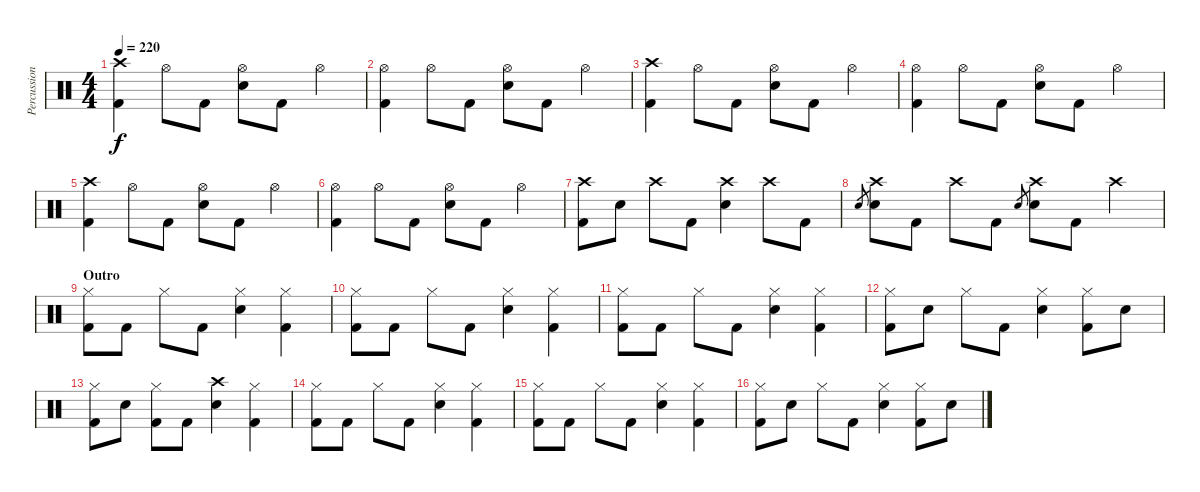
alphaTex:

\track ("Percussion" "Percussion") {instrument percussion}
\staff {score}
\articulation defaults
\ts (4 4)
\tempo 220
\clef neutral
\ks c
("Crash high (hit)" "Kick (hit) 2").4{dy f} "Hi-Hat (open)".8 "Kick (hit) 2".8 ("Hi-Hat (open)" "Snare (hit) 2").8 "Kick (hit) 2".8 "Hi-Hat (open)".4 |
("Hi-Hat (open)" "Kick (hit) 2").4 "Hi-Hat (open)".8 "Kick (hit) 2".8 ("Hi-Hat (open)" "Snare (hit) 2").8 "Kick (hit) 2".8 "Hi-Hat (open)".4 |
("Crash high (hit)" "Kick (hit) 2").4 "Hi-Hat (open)".8 "Kick (hit) 2".8 ("Hi-Hat (open)" "Snare (hit) 2").8 "Kick (hit) 2".8 "Hi-Hat (open)".4 |
("Hi-Hat (open)" "Kick (hit) 2").4 "Hi-Hat (open)".8 "Kick (hit) 2".8 ("Hi-Hat (open)" "Snare (hit) 2").8 "Kick (hit) 2".8 "Hi-Hat (open)".4 |
("Crash high (hit)" "Kick (hit) 2").4 "Hi-Hat (open)".8 "Kick (hit) 2".8 ("Hi-Hat (open)" "Snare (hit) 2").8 "Kick (hit) 2".8 "Hi-Hat (open)".4 |
("Hi-Hat (open)" "Kick (hit) 2").4 "Hi-Hat (open)".8 "Kick (hit) 2".8 ("Hi-Hat (open)" "Snare (hit) 2").8 "Kick (hit) 2".8 "Hi-Hat (open)".4 |
("Crash high (hit)" "Kick (hit) 2").8 "Snare (hit) 2".8 "Crash high (hit)".8 "Kick (hit) 2".8 ("Crash high (hit)" "Snare (hit) 2").4 "Crash high (hit)".8 "Kick (hit) 2".8 |
"Snare (hit) 2".8{gr} ("Crash high (hit)" "Snare (hit) 2").8 "Kick (hit) 2".8 "Crash high (hit)".8 "Kick (hit) 2".8 "Snare (hit) 2".8{gr} ("Crash high (hit)" "Snare (hit) 2").8 "Kick (hit) 2".8 "Crash high (hit)".4 |
\section ("" "Outro")
("Hi-Hat (closed)" "Kick (hit) 2").8 "Kick (hit) 2".8 "Hi-Hat (closed)".8 "Kick (hit) 2".8 ("Hi-Hat (closed)" "Snare (hit) 2").4 ("Hi-Hat (closed)" "Kick (hit) 2").4 |
("Hi-Hat (closed)" "Kick (hit) 2").8 "Kick (hit) 2".8 "Hi-Hat (closed)".8 "Kick (hit) 2".8 ("Hi-Hat (closed)" "Snare (hit) 2").4 ("Hi-Hat (closed)" "Kick (hit) 2").4 |
("Hi-Hat (closed)" "Kick (hit) 2").8 "Kick (hit) 2".8 "Hi-Hat (closed)".8 "Kick (hit) 2".8 ("Hi-Hat (closed)" "Snare (hit) 2").4 ("Hi-Hat (closed)" "Kick (hit) 2").4 |
("Hi-Hat (closed)" "Kick (hit) 2").8 "Snare (hit) 2".8 "Hi-Hat (closed)".8 "Kick (hit) 2".8 ("Hi-Hat (closed)" "Snare (hit) 2").4 ("Hi-Hat (closed)" "Kick (hit) 2").8 "Snare (hit) 2".8 |
("Hi-Hat (closed)" "Kick (hit) 2").8 "Snare (hit) 2".8 ("Hi-Hat (closed)" "Kick (hit) 2").8 "Kick (hit) 2".8 ("Crash high (hit)" "Snare (hit) 2").4 ("Hi-Hat (closed)" "Kick (hit) 2").4 |
("Hi-Hat (closed)" "Kick (hit) 2").8 "Kick (hit) 2".8 "Hi-Hat (closed)".8 "Kick (hit) 2".8 ("Hi-Hat (closed)" "Snare (hit) 2").4 ("Hi-Hat (closed)" "Kick (hit) 2").4 |
("Hi-Hat (closed)" "Kick (hit) 2").8 "Kick (hit) 2".8 "Hi-Hat (closed)".8 "Kick (hit) 2".8 ("Hi-Hat (closed)" "Snare (hit) 2").4 ("Hi-Hat (closed)" "Kick (hit) 2").4 |
("Hi-Hat (closed)" "Kick (hit) 2").8 "Snare (hit) 2".8 "Hi-Hat (closed)".8 "Kick (hit) 2".8 ("Hi-Hat (closed)" "Snare (hit) 2").4 ("Hi-Hat (closed)" "Kick (hit) 2").8 "Snare (hit) 2".8
